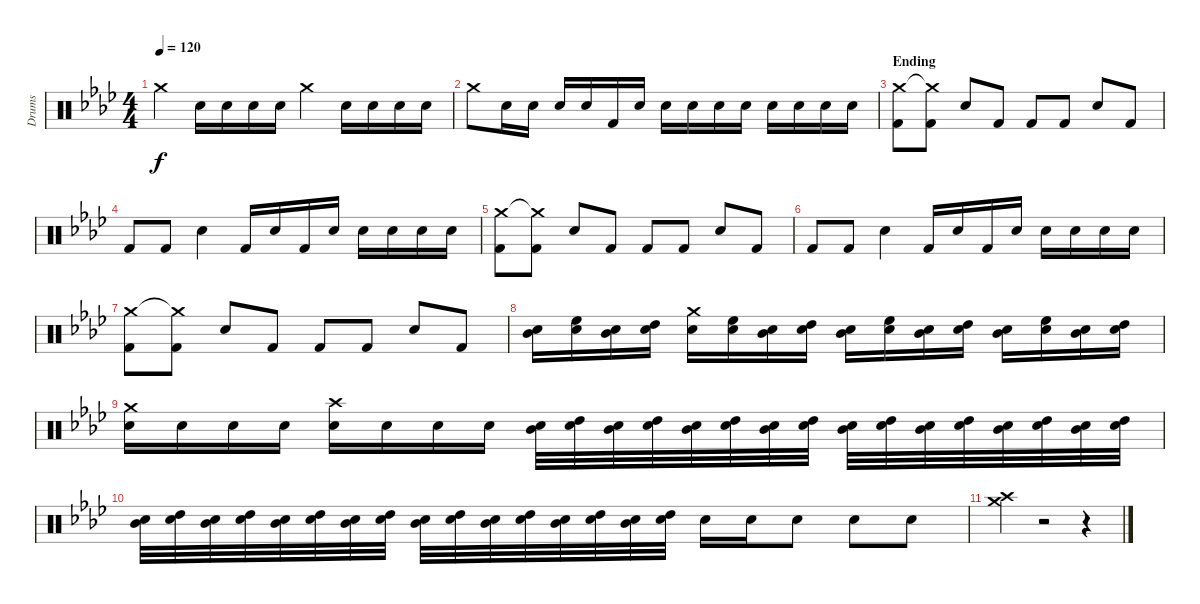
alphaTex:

\track ("Drums" "Drums") {instrument percussion}
\staff {score}
\articulation defaults
\ts (4 4)
\tempo 120
\clef neutral
\ks ab "Crash medium (hit)".4{dy f} "Electric Snare (hit)".16 "Electric Snare (hit)".16 "Electric Snare (hit)".16 "Electric Snare (hit)".16 "Crash medium (hit)".4 "Electric Snare (hit)".16 "Electric Snare (hit)".16 "Electric Snare (hit)".16 "Electric Snare (hit)".16
|
"Crash medium (hit)".8 "Electric Snare (hit)".16 "Electric Snare (hit)".16 "Electric Snare (hit)".16 "Electric Snare (hit)".16 "Kick (hit) 2".16 "Electric Snare (hit)".16 "Electric Snare (hit)".16 "Electric Snare (hit)".16 "Electric Snare (hit)".16 "Electric Snare (hit)".16 "Electric Snare (hit)".16 "Electric Snare (hit)".16 "Electric Snare (hit)".16 "Electric Snare (hit)".16 |
\section ("" "Ending")
("Crash medium (hit)" "Kick (hit) 2").8 ("Crash medium (hit)"{t} "Kick (hit) 2").8 "Snare (hit) 2".8 "Kick (hit) 2".8 "Kick (hit) 2".8 "Kick (hit) 2".8 "Snare (hit) 2".8 "Kick (hit) 2".8 |
"Kick (hit) 2".8 "Kick (hit) 2".8 "Snare (hit) 2".4 "Kick (hit) 2".16 "Electric Snare (hit)".16 "Kick (hit) 2".16 "Electric Snare (hit)".16 "Electric Snare (hit)".16 "Electric Snare (hit)".16 "Electric Snare (hit)".16 "Electric Snare (hit)".16 |
("Crash medium (hit)" "Kick (hit) 2").8 ("Crash medium (hit)"{t} "Kick (hit) 2").8 "Snare (hit) 2".8 "Kick (hit) 2".8 "Kick (hit) 2".8 "Kick (hit) 2".8 "Snare (hit) 2".8 "Kick (hit) 2".8 |
"Kick (hit) 2".8 "Kick (hit) 2".8 "Snare (hit) 2".4 "Kick (hit) 2".16 "Electric Snare (hit)".16 "Kick (hit) 2".16 "Electric Snare (hit)".16 "Electric Snare (hit)".16 "Electric Snare (hit)".16 "Electric Snare (hit)".16 "Electric Snare (hit)".16 |
("Crash medium (hit)" "Kick (hit) 2").8 ("Crash medium (hit)"{t} "Kick (hit) 2").8 "Snare (hit) 2".8 "Kick (hit) 2".8 "Kick (hit) 2".8 "Kick (hit) 2".8 "Snare (hit) 2".8 "Kick (hit) 2".8 |
("Snare (hit) 2" "Mid Tom (hit)").16 ("Electric Snare (hit)" "High Floor Tom (hit)").16 ("Snare (hit) 2" "Mid Tom (hit)").16 ("Electric Snare (hit)" "High Tom (hit)").16 ("Snare (hit) 2" "Crash medium (hit)").16 ("Electric Snare (hit)" "High Floor Tom (hit)").16 ("Snare (hit) 2" "Mid Tom (hit)").16 ("Electric Snare (hit)" "High Tom (hit)").16 ("Snare (hit) 2" "Mid Tom (hit)").16 ("Electric Snare (hit)" "High Floor Tom (hit)").16 ("Snare (hit) 2" "Mid Tom (hit)").16 ("Electric Snare (hit)" "High Tom (hit)").16 ("Snare (hit) 2" "Mid Tom (hit)").16 ("Electric Snare (hit)" "High Floor Tom (hit)").16 ("Snare (hit) 2" "Mid Tom (hit)").16 ("Electric Snare (hit)" "High Tom (hit)").16 |
("Crash medium (hit)" "Electric Snare (hit)").16 "Electric Snare (hit)".16 "Electric Snare (hit)".16 "Electric Snare (hit)".16 ("Crash high (hit)" "Electric Snare (hit)").16 "Electric Snare (hit)".16 "Electric Snare (hit)".16 "Electric Snare (hit)".16 ("Mid Tom (hit)" "Electric Snare (hit)").32 ("High Tom (hit)" "Electric Snare (hit)").32 ("Mid Tom (hit)" "Electric Snare (hit)").32 ("High Tom (hit)" "Electric Snare (hit)").32 ("Mid Tom (hit)" "Electric Snare (hit)").32 ("High Tom (hit)" "Electric Snare (hit)").32 ("Mid Tom (hit)" "Electric Snare (hit)").32 ("High Tom (hit)" "Electric Snare (hit)").32 ("Mid Tom (hit)" "Electric Snare (hit)").32 ("High Tom (hit)" "Electric Snare (hit)").32 ("Mid Tom (hit)" "Electric Snare (hit)").32 ("High Tom (hit)" "Electric Snare (hit)").32 ("Mid Tom (hit)" "Electric Snare (hit)").32 ("High Tom (hit)" "Electric Snare (hit)").32 ("Mid Tom (hit)" "Electric Snare (hit)").32 ("High Tom (hit)" "Electric Snare (hit)").32 |
("Mid Tom (hit)" "Electric Snare (hit)").32 ("High Tom (hit)" "Electric Snare (hit)").32 ("Mid Tom (hit)" "Electric Snare (hit)").32 ("High Tom (hit)" "Electric Snare (hit)").32 ("Mid Tom (hit)" "Electric Snare (hit)").32 ("High Tom (hit)" "Electric Snare (hit)").32 ("Mid Tom (hit)" "Electric Snare (hit)").32 ("High Tom (hit)" "Electric Snare (hit)").32 ("Mid Tom (hit)" "Electric Snare (hit)").32 ("High Tom (hit)" "Electric Snare (hit)").32 ("Mid Tom (hit)" "Electric Snare (hit)").32 ("High Tom (hit)" "Electric Snare (hit)").32 ("Mid Tom (hit)" "Electric Snare (hit)").32 ("High Tom (hit)" "Electric Snare (hit)").32 ("Mid Tom (hit)" "Electric Snare (hit)").32 ("High Tom (hit)" "Electric Snare (hit)").32 "Electric Snare (hit)".16 "Electric Snare (hit)".16 "Electric Snare (hit)".8 "Electric Snare (hit)".8 "Electric Snare (hit)".8 |
("Crash high (hit)" "Crash medium (hit)").4 r.2 r.4
